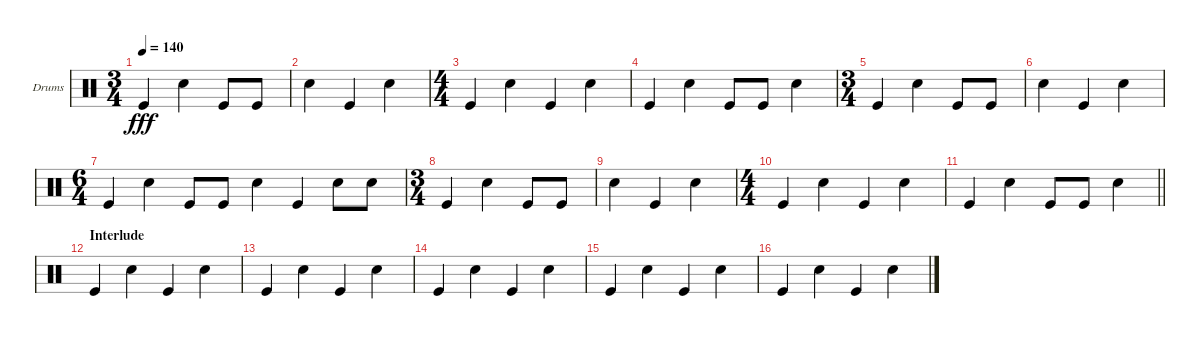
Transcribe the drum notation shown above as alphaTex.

\bracketExtendMode groupsimilarinstruments
\firstSystemTrackNameOrientation horizontal
\otherSystemsTrackNameOrientation horizontal
\track ("Drumkit" "Drums") {instrument percussion}
\staff {score}
\articulation defaults
\ts (3 4)
\beaming (8 2 2 2 2)
\tempo 140
\clef neutral
\ks c "Kick (hit)".4{dy fff} "Snare (hit) 2".4 "Kick (hit)".8 "Kick (hit)".8
|
"Snare (hit) 2".4 "Kick (hit)".4 "Snare (hit) 2".4 |
\ts (4 4)
\beaming (8 2 2 2 2)
"Kick (hit)".4 "Snare (hit) 2".4 "Kick (hit)".4 "Snare (hit) 2".4 |
"Kick (hit)".4 "Snare (hit) 2".4 "Kick (hit)".8 "Kick (hit)".8 "Snare (hit) 2".4 |
\ts (3 4)
\beaming (8 2 2 2 2)
"Kick (hit)".4 "Snare (hit) 2".4 "Kick (hit)".8 "Kick (hit)".8 |
\beaming (8 2 2 2)
"Snare (hit) 2".4 "Kick (hit)".4 "Snare (hit) 2".4 |
\ts (6 4)
\beaming (8 6 6)
"Kick (hit)".4 "Snare (hit) 2".4 "Kick (hit)".8 "Kick (hit)".8 "Snare (hit) 2".4 "Kick (hit)".4 "Snare (hit) 2".8 "Snare (hit) 2".8 |
\ts (3 4)
\beaming (8 2 2 2)
"Kick (hit)".4 "Snare (hit) 2".4 "Kick (hit)".8 "Kick (hit)".8 |
"Snare (hit) 2".4 "Kick (hit)".4 "Snare (hit) 2".4 |
\ts (4 4)
\beaming (8 2 2 2 2)
"Kick (hit)".4 "Snare (hit) 2".4 "Kick (hit)".4 "Snare (hit) 2".4 |
\barLineRight lightlight "Kick (hit)".4 "Snare (hit) 2".4 "Kick (hit)".8 "Kick (hit)".8 "Snare (hit) 2".4
|
\section ("" "Interlude")
"Kick (hit)".4 "Snare (hit) 2".4 "Kick (hit)".4 "Snare (hit) 2".4 |
"Kick (hit)".4 "Snare (hit) 2".4 "Kick (hit)".4 "Snare (hit) 2".4 |
"Kick (hit)".4 "Snare (hit) 2".4 "Kick (hit)".4 "Snare (hit) 2".4 |
"Kick (hit)".4 "Snare (hit) 2".4 "Kick (hit)".4 "Snare (hit) 2".4 |
"Kick (hit)".4 "Snare (hit) 2".4 "Kick (hit)".4 "Snare (hit) 2".4
